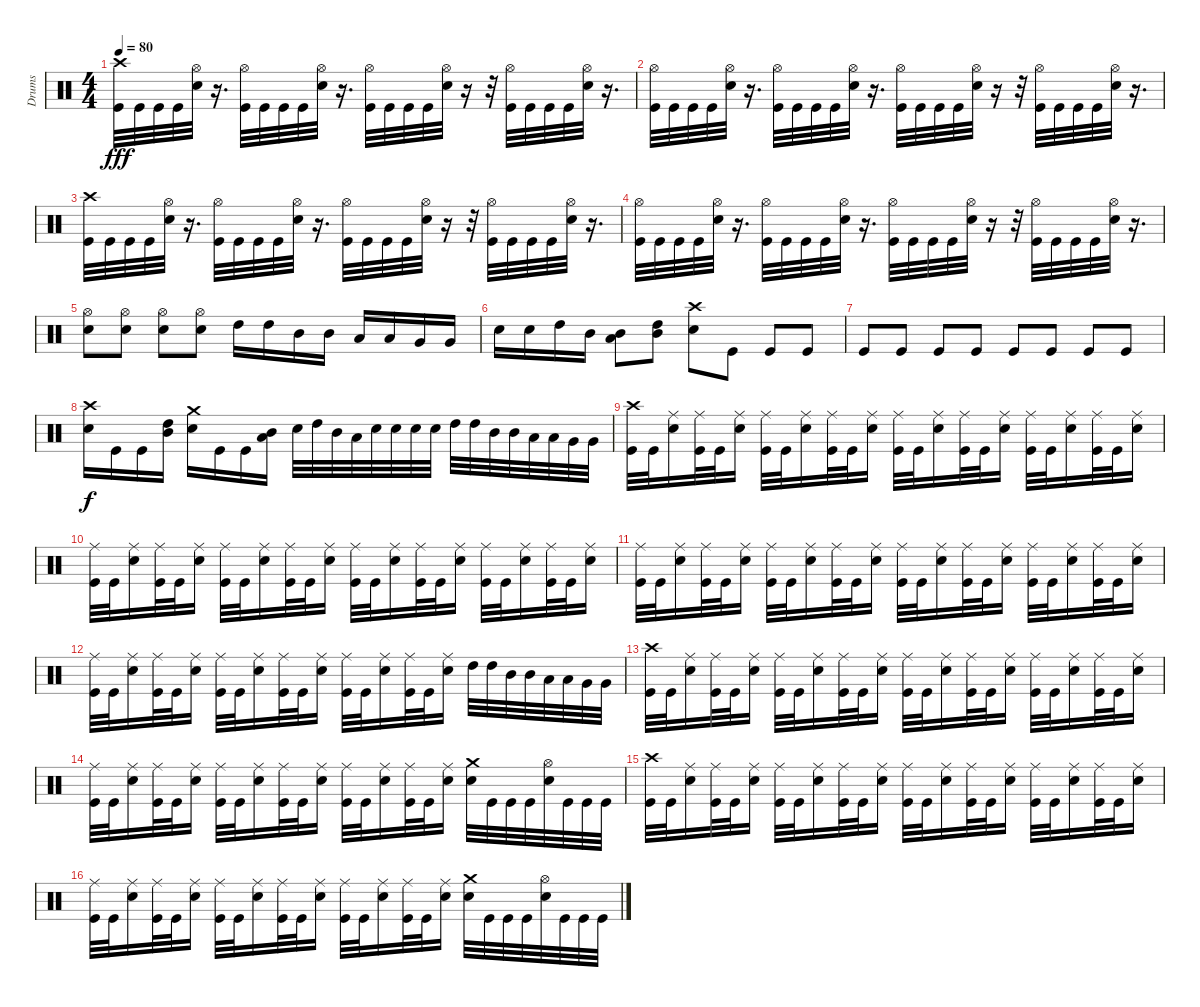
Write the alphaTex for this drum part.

\track ("Drums" "Drums") {instrument percussion}
\staff {score}
\articulation defaults
\ts (4 4)
\tempo 80
\clef neutral
\ks c
("Crash high (hit)" "Kick (hit)").32{dy fff} "Kick (hit)".32 "Kick (hit)".32 "Kick (hit)".32 ("Hi-Hat (open)" "Electric Snare (hit)").32 r.16{d} ("Hi-Hat (open)" "Kick (hit)").32 "Kick (hit)".32 "Kick (hit)".32 "Kick (hit)".32 ("Hi-Hat (open)" "Electric Snare (hit)").32 r.16{d} ("Hi-Hat (open)" "Kick (hit)").32 "Kick (hit)".32 "Kick (hit)".32 "Kick (hit)".32 ("Hi-Hat (open)" "Electric Snare (hit)").32 r.16 r.32 ("Hi-Hat (open)" "Kick (hit)").32 "Kick (hit)".32 "Kick (hit)".32 "Kick (hit)".32 ("Hi-Hat (open)" "Electric Snare (hit)").32 r.16{d} |
("Hi-Hat (open)" "Kick (hit)").32 "Kick (hit)".32 "Kick (hit)".32 "Kick (hit)".32 ("Hi-Hat (open)" "Electric Snare (hit)").32 r.16{d} ("Hi-Hat (open)" "Kick (hit)").32 "Kick (hit)".32 "Kick (hit)".32 "Kick (hit)".32 ("Hi-Hat (open)" "Electric Snare (hit)").32 r.16{d} ("Hi-Hat (open)" "Kick (hit)").32 "Kick (hit)".32 "Kick (hit)".32 "Kick (hit)".32 ("Hi-Hat (open)" "Electric Snare (hit)").32 r.16 r.32 ("Hi-Hat (open)" "Kick (hit)").32 "Kick (hit)".32 "Kick (hit)".32 "Kick (hit)".32 ("Hi-Hat (open)" "Electric Snare (hit)").32 r.16{d} |
("Crash high (hit)" "Kick (hit)").32 "Kick (hit)".32 "Kick (hit)".32 "Kick (hit)".32 ("Hi-Hat (open)" "Electric Snare (hit)").32 r.16{d} ("Hi-Hat (open)" "Kick (hit)").32 "Kick (hit)".32 "Kick (hit)".32 "Kick (hit)".32 ("Hi-Hat (open)" "Electric Snare (hit)").32 r.16{d} ("Hi-Hat (open)" "Kick (hit)").32 "Kick (hit)".32 "Kick (hit)".32 "Kick (hit)".32 ("Hi-Hat (open)" "Electric Snare (hit)").32 r.16 r.32 ("Hi-Hat (open)" "Kick (hit)").32 "Kick (hit)".32 "Kick (hit)".32 "Kick (hit)".32 ("Hi-Hat (open)" "Electric Snare (hit)").32 r.16{d} |
("Hi-Hat (open)" "Kick (hit)").32 "Kick (hit)".32 "Kick (hit)".32 "Kick (hit)".32 ("Hi-Hat (open)" "Electric Snare (hit)").32 r.16{d} ("Hi-Hat (open)" "Kick (hit)").32 "Kick (hit)".32 "Kick (hit)".32 "Kick (hit)".32 ("Hi-Hat (open)" "Electric Snare (hit)").32 r.16{d} ("Hi-Hat (open)" "Kick (hit)").32 "Kick (hit)".32 "Kick (hit)".32 "Kick (hit)".32 ("Hi-Hat (open)" "Electric Snare (hit)").32 r.16 r.32 ("Hi-Hat (open)" "Kick (hit)").32 "Kick (hit)".32 "Kick (hit)".32 "Kick (hit)".32 ("Hi-Hat (open)" "Electric Snare (hit)").32 r.16{d} |
("Hi-Hat (open)" "Electric Snare (hit)").8 ("Electric Snare (hit)" "Hi-Hat (open)").8 ("Hi-Hat (open)" "Electric Snare (hit)").8 ("Electric Snare (hit)" "Hi-Hat (open)").8 "High Tom (hit)".16 "High Tom (hit)".16 "Mid Tom (hit)".16 "Mid Tom (hit)".16 "Low Tom (hit)".16 "Low Tom (hit)".16 "Very Low Tom (hit)".16 "Very Low Tom (hit)".16 |
"Electric Snare (hit)".16 "Electric Snare (hit)".16 "High Tom (hit)".16 "Mid Tom (hit)".16 ("Mid Tom (hit)" "Low Tom (hit)").8 ("Mid Tom (hit)" "High Tom (hit)").8 ("Crash high (hit)" "Electric Snare (hit)").8 "Kick (hit)".8 "Kick (hit)".8 "Kick (hit)".8 |
"Kick (hit)".8 "Kick (hit)".8 "Kick (hit)".8 "Kick (hit)".8 "Kick (hit)".8 "Kick (hit)".8 "Kick (hit)".8 "Kick (hit)".8 |
("Crash high (hit)" "Electric Snare (hit)").16{dy f} "Kick (hit)".16 "Kick (hit)".16 ("Mid Tom (hit)" "High Tom (hit)").16 ("Crash medium (hit)" "Electric Snare (hit)").16 "Kick (hit)".16 "Kick (hit)".16 ("Mid Tom (hit)" "Low Tom (hit)").16 "Electric Snare (hit)".32 "High Tom (hit)".32 "Mid Tom (hit)".32 "Low Tom (hit)".32 "Electric Snare (hit)".32 "Electric Snare (hit)".32 "Electric Snare (hit)".32 "Electric Snare (hit)".32 "High Tom (hit)".32 "High Tom (hit)".32 "Mid Tom (hit)".32 "Mid Tom (hit)".32 "Low Tom (hit)".32 "Low Tom (hit)".32 "Very Low Tom (hit)".32 "Very Low Tom (hit)".32 |
("Crash high (hit)" "Kick (hit)").32 "Kick (hit)".32 ("Ride (middle)" "Electric Snare (hit)").16 ("Ride (middle)" "Kick (hit)").32 "Kick (hit)".32 ("Ride (middle)" "Electric Snare (hit)").16 ("Ride (middle)" "Kick (hit)").32 "Kick (hit)".32 ("Ride (middle)" "Electric Snare (hit)").16 ("Ride (middle)" "Kick (hit)").32 "Kick (hit)".32 ("Ride (middle)" "Electric Snare (hit)").16 ("Ride (middle)" "Kick (hit)").32 "Kick (hit)".32 ("Ride (middle)" "Electric Snare (hit)").16 ("Ride (middle)" "Kick (hit)").32 "Kick (hit)".32 ("Ride (middle)" "Electric Snare (hit)").16 ("Ride (middle)" "Kick (hit)").32 "Kick (hit)".32 ("Ride (middle)" "Electric Snare (hit)").16 ("Ride (middle)" "Kick (hit)").32 "Kick (hit)".32 ("Ride (middle)" "Electric Snare (hit)").16 |
("Ride (middle)" "Kick (hit)").32 "Kick (hit)".32 ("Ride (middle)" "Electric Snare (hit)").16 ("Ride (middle)" "Kick (hit)").32 "Kick (hit)".32 ("Ride (middle)" "Electric Snare (hit)").16 ("Ride (middle)" "Kick (hit)").32 "Kick (hit)".32 ("Ride (middle)" "Electric Snare (hit)").16 ("Ride (middle)" "Kick (hit)").32 "Kick (hit)".32 ("Ride (middle)" "Electric Snare (hit)").16 ("Ride (middle)" "Kick (hit)").32 "Kick (hit)".32 ("Ride (middle)" "Electric Snare (hit)").16 ("Ride (middle)" "Kick (hit)").32 "Kick (hit)".32 ("Ride (middle)" "Electric Snare (hit)").16 ("Ride (middle)" "Kick (hit)").32 "Kick (hit)".32 ("Ride (middle)" "Electric Snare (hit)").16 ("Ride (middle)" "Kick (hit)").32 "Kick (hit)".32 ("Ride (middle)" "Electric Snare (hit)").16 |
("Ride (middle)" "Kick (hit)").32 "Kick (hit)".32 ("Ride (middle)" "Electric Snare (hit)").16 ("Ride (middle)" "Kick (hit)").32 "Kick (hit)".32 ("Ride (middle)" "Electric Snare (hit)").16 ("Ride (middle)" "Kick (hit)").32 "Kick (hit)".32 ("Ride (middle)" "Electric Snare (hit)").16 ("Ride (middle)" "Kick (hit)").32 "Kick (hit)".32 ("Ride (middle)" "Electric Snare (hit)").16 ("Ride (middle)" "Kick (hit)").32 "Kick (hit)".32 ("Ride (middle)" "Electric Snare (hit)").16 ("Ride (middle)" "Kick (hit)").32 "Kick (hit)".32 ("Ride (middle)" "Electric Snare (hit)").16 ("Ride (middle)" "Kick (hit)").32 "Kick (hit)".32 ("Ride (middle)" "Electric Snare (hit)").16 ("Ride (middle)" "Kick (hit)").32 "Kick (hit)".32 ("Ride (middle)" "Electric Snare (hit)").16 |
("Ride (middle)" "Kick (hit)").32 "Kick (hit)".32 ("Ride (middle)" "Electric Snare (hit)").16 ("Ride (middle)" "Kick (hit)").32 "Kick (hit)".32 ("Ride (middle)" "Electric Snare (hit)").16 ("Ride (middle)" "Kick (hit)").32 "Kick (hit)".32 ("Ride (middle)" "Electric Snare (hit)").16 ("Ride (middle)" "Kick (hit)").32 "Kick (hit)".32 ("Ride (middle)" "Electric Snare (hit)").16 ("Ride (middle)" "Kick (hit)").32 "Kick (hit)".32 ("Ride (middle)" "Electric Snare (hit)").16 ("Ride (middle)" "Kick (hit)").32 "Kick (hit)".32 ("Ride (middle)" "Electric Snare (hit)").16 "High Tom (hit)".32 "High Tom (hit)".32 "Mid Tom (hit)".32 "Mid Tom (hit)".32 "Low Tom (hit)".32 "Low Tom (hit)".32 "Very Low Tom (hit)".32 "Very Low Tom (hit)".32 |
("Crash high (hit)" "Kick (hit)").32 "Kick (hit)".32 ("Ride (middle)" "Electric Snare (hit)").16 ("Ride (middle)" "Kick (hit)").32 "Kick (hit)".32 ("Ride (middle)" "Electric Snare (hit)").16 ("Ride (middle)" "Kick (hit)").32 "Kick (hit)".32 ("Ride (middle)" "Electric Snare (hit)").16 ("Ride (middle)" "Kick (hit)").32 "Kick (hit)".32 ("Ride (middle)" "Electric Snare (hit)").16 ("Ride (middle)" "Kick (hit)").32 "Kick (hit)".32 ("Ride (middle)" "Electric Snare (hit)").16 ("Ride (middle)" "Kick (hit)").32 "Kick (hit)".32 ("Ride (middle)" "Electric Snare (hit)").16 ("Ride (middle)" "Kick (hit)").32 "Kick (hit)".32 ("Ride (middle)" "Electric Snare (hit)").16 ("Ride (middle)" "Kick (hit)").32 "Kick (hit)".32 ("Ride (middle)" "Electric Snare (hit)").16 |
("Ride (middle)" "Kick (hit)").32 "Kick (hit)".32 ("Ride (middle)" "Electric Snare (hit)").16 ("Ride (middle)" "Kick (hit)").32 "Kick (hit)".32 ("Ride (middle)" "Electric Snare (hit)").16 ("Ride (middle)" "Kick (hit)").32 "Kick (hit)".32 ("Ride (middle)" "Electric Snare (hit)").16 ("Ride (middle)" "Kick (hit)").32 "Kick (hit)".32 ("Ride (middle)" "Electric Snare (hit)").16 ("Ride (middle)" "Kick (hit)").32 "Kick (hit)".32 ("Ride (middle)" "Electric Snare (hit)").16 ("Ride (middle)" "Kick (hit)").32 "Kick (hit)".32 ("Ride (middle)" "Electric Snare (hit)").16 ("Crash medium (hit)" "Electric Snare (hit)").32 "Kick (hit)".32 "Kick (hit)".32 "Kick (hit)".32 ("Hi-Hat (open)" "Electric Snare (hit)").32 "Kick (hit)".32 "Kick (hit)".32 "Kick (hit)".32 |
("Crash high (hit)" "Kick (hit)").32 "Kick (hit)".32 ("Ride (middle)" "Electric Snare (hit)").16 ("Ride (middle)" "Kick (hit)").32 "Kick (hit)".32 ("Ride (middle)" "Electric Snare (hit)").16 ("Ride (middle)" "Kick (hit)").32 "Kick (hit)".32 ("Ride (middle)" "Electric Snare (hit)").16 ("Ride (middle)" "Kick (hit)").32 "Kick (hit)".32 ("Ride (middle)" "Electric Snare (hit)").16 ("Ride (middle)" "Kick (hit)").32 "Kick (hit)".32 ("Ride (middle)" "Electric Snare (hit)").16 ("Ride (middle)" "Kick (hit)").32 "Kick (hit)".32 ("Ride (middle)" "Electric Snare (hit)").16 ("Ride (middle)" "Kick (hit)").32 "Kick (hit)".32 ("Ride (middle)" "Electric Snare (hit)").16 ("Ride (middle)" "Kick (hit)").32 "Kick (hit)".32 ("Ride (middle)" "Electric Snare (hit)").16 |
("Ride (middle)" "Kick (hit)").32 "Kick (hit)".32 ("Ride (middle)" "Electric Snare (hit)").16 ("Ride (middle)" "Kick (hit)").32 "Kick (hit)".32 ("Ride (middle)" "Electric Snare (hit)").16 ("Ride (middle)" "Kick (hit)").32 "Kick (hit)".32 ("Ride (middle)" "Electric Snare (hit)").16 ("Ride (middle)" "Kick (hit)").32 "Kick (hit)".32 ("Ride (middle)" "Electric Snare (hit)").16 ("Ride (middle)" "Kick (hit)").32 "Kick (hit)".32 ("Ride (middle)" "Electric Snare (hit)").16 ("Ride (middle)" "Kick (hit)").32 "Kick (hit)".32 ("Ride (middle)" "Electric Snare (hit)").16 ("Crash medium (hit)" "Electric Snare (hit)").32 "Kick (hit)".32 "Kick (hit)".32 "Kick (hit)".32 ("Hi-Hat (open)" "Electric Snare (hit)").32 "Kick (hit)".32 "Kick (hit)".32 "Kick (hit)".32
